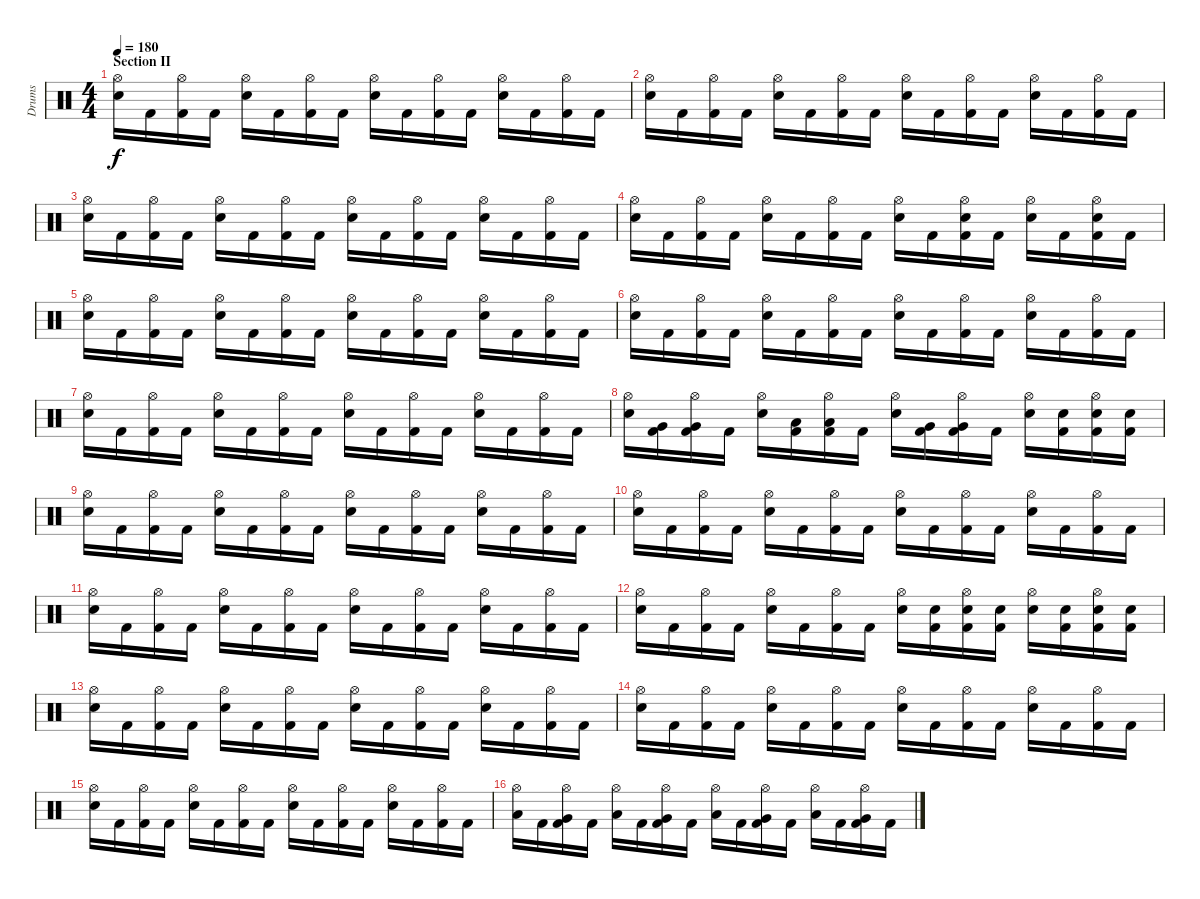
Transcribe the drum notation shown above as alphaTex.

\track ("Drums" "Drums") {instrument percussion}
\staff {score}
\articulation defaults
\ts (4 4)
\section ("" "Section II")
\tempo 180
\clef neutral
\ks c
("Hi-Hat (open)" "Snare (hit) 2").16{dy f} "Kick (hit) 2".16 ("Hi-Hat (open)" "Kick (hit) 2").16 "Kick (hit) 2".16 ("Hi-Hat (open)" "Snare (hit) 2").16 "Kick (hit) 2".16 ("Hi-Hat (open)" "Kick (hit) 2").16 "Kick (hit) 2".16 ("Hi-Hat (open)" "Snare (hit) 2").16 "Kick (hit) 2".16 ("Hi-Hat (open)" "Kick (hit) 2").16 "Kick (hit) 2".16 ("Hi-Hat (open)" "Snare (hit) 2").16 "Kick (hit) 2".16 ("Hi-Hat (open)" "Kick (hit) 2").16 "Kick (hit) 2".16 |
("Hi-Hat (open)" "Snare (hit) 2").16 "Kick (hit) 2".16 ("Hi-Hat (open)" "Kick (hit) 2").16 "Kick (hit) 2".16 ("Hi-Hat (open)" "Snare (hit) 2").16 "Kick (hit) 2".16 ("Hi-Hat (open)" "Kick (hit) 2").16 "Kick (hit) 2".16 ("Hi-Hat (open)" "Snare (hit) 2").16 "Kick (hit) 2".16 ("Hi-Hat (open)" "Kick (hit) 2").16 "Kick (hit) 2".16 ("Hi-Hat (open)" "Snare (hit) 2").16 "Kick (hit) 2".16 ("Hi-Hat (open)" "Kick (hit) 2").16 "Kick (hit) 2".16 |
("Hi-Hat (open)" "Snare (hit) 2").16 "Kick (hit) 2".16 ("Hi-Hat (open)" "Kick (hit) 2").16 "Kick (hit) 2".16 ("Hi-Hat (open)" "Snare (hit) 2").16 "Kick (hit) 2".16 ("Hi-Hat (open)" "Kick (hit) 2").16 "Kick (hit) 2".16 ("Hi-Hat (open)" "Snare (hit) 2").16 "Kick (hit) 2".16 ("Hi-Hat (open)" "Kick (hit) 2").16 "Kick (hit) 2".16 ("Hi-Hat (open)" "Snare (hit) 2").16 "Kick (hit) 2".16 ("Hi-Hat (open)" "Kick (hit) 2").16 "Kick (hit) 2".16 |
("Hi-Hat (open)" "Snare (hit) 2").16 "Kick (hit) 2".16 ("Hi-Hat (open)" "Kick (hit) 2").16 "Kick (hit) 2".16 ("Hi-Hat (open)" "Snare (hit) 2").16 "Kick (hit) 2".16 ("Hi-Hat (open)" "Kick (hit) 2").16 "Kick (hit) 2".16 ("Hi-Hat (open)" "Snare (hit) 2").16 "Kick (hit) 2".16 ("Hi-Hat (open)" "Snare (hit) 2" "Kick (hit) 2").16 "Kick (hit) 2".16 ("Hi-Hat (open)" "Snare (hit) 2").16 "Kick (hit) 2".16 ("Hi-Hat (open)" "Snare (hit) 2" "Kick (hit) 2").16 "Kick (hit) 2".16 |
("Hi-Hat (open)" "Snare (hit) 2").16 "Kick (hit) 2".16 ("Hi-Hat (open)" "Kick (hit) 2").16 "Kick (hit) 2".16 ("Hi-Hat (open)" "Snare (hit) 2").16 "Kick (hit) 2".16 ("Hi-Hat (open)" "Kick (hit) 2").16 "Kick (hit) 2".16 ("Hi-Hat (open)" "Snare (hit) 2").16 "Kick (hit) 2".16 ("Hi-Hat (open)" "Kick (hit) 2").16 "Kick (hit) 2".16 ("Hi-Hat (open)" "Snare (hit) 2").16 "Kick (hit) 2".16 ("Hi-Hat (open)" "Kick (hit) 2").16 "Kick (hit) 2".16 |
("Hi-Hat (open)" "Snare (hit) 2").16 "Kick (hit) 2".16 ("Hi-Hat (open)" "Kick (hit) 2").16 "Kick (hit) 2".16 ("Hi-Hat (open)" "Snare (hit) 2").16 "Kick (hit) 2".16 ("Hi-Hat (open)" "Kick (hit) 2").16 "Kick (hit) 2".16 ("Hi-Hat (open)" "Snare (hit) 2").16 "Kick (hit) 2".16 ("Hi-Hat (open)" "Kick (hit) 2").16 "Kick (hit) 2".16 ("Hi-Hat (open)" "Snare (hit) 2").16 "Kick (hit) 2".16 ("Hi-Hat (open)" "Kick (hit) 2").16 "Kick (hit) 2".16 |
("Hi-Hat (open)" "Snare (hit) 2").16 "Kick (hit) 2".16 ("Hi-Hat (open)" "Kick (hit) 2").16 "Kick (hit) 2".16 ("Hi-Hat (open)" "Snare (hit) 2").16 "Kick (hit) 2".16 ("Hi-Hat (open)" "Kick (hit) 2").16 "Kick (hit) 2".16 ("Hi-Hat (open)" "Snare (hit) 2").16 "Kick (hit) 2".16 ("Hi-Hat (open)" "Kick (hit) 2").16 "Kick (hit) 2".16 ("Hi-Hat (open)" "Snare (hit) 2").16 "Kick (hit) 2".16 ("Hi-Hat (open)" "Kick (hit) 2").16 "Kick (hit) 2".16 |
("Hi-Hat (open)" "Snare (hit) 2").16 ("Very Low Tom (hit)" "Kick (hit) 2").16 ("Hi-Hat (open)" "Very Low Tom (hit)" "Kick (hit) 2").16 "Kick (hit) 2".16 ("Hi-Hat (open)" "Snare (hit) 2").16 ("Low Tom (hit)" "Kick (hit) 2").16 ("Hi-Hat (open)" "Low Tom (hit)" "Kick (hit) 2").16 "Kick (hit) 2".16 ("Hi-Hat (open)" "Snare (hit) 2").16 ("Very Low Tom (hit)" "Kick (hit) 2").16 ("Hi-Hat (open)" "Very Low Tom (hit)" "Kick (hit) 2").16 "Kick (hit) 2".16 ("Hi-Hat (open)" "Snare (hit) 2").16 ("Snare (hit) 2" "Kick (hit) 2").16 ("Hi-Hat (open)" "Snare (hit) 2" "Kick (hit) 2").16 ("Snare (hit) 2" "Kick (hit) 2").16 |
("Hi-Hat (open)" "Snare (hit) 2").16 "Kick (hit) 2".16 ("Hi-Hat (open)" "Kick (hit) 2").16 "Kick (hit) 2".16 ("Hi-Hat (open)" "Snare (hit) 2").16 "Kick (hit) 2".16 ("Hi-Hat (open)" "Kick (hit) 2").16 "Kick (hit) 2".16 ("Hi-Hat (open)" "Snare (hit) 2").16 "Kick (hit) 2".16 ("Hi-Hat (open)" "Kick (hit) 2").16 "Kick (hit) 2".16 ("Hi-Hat (open)" "Snare (hit) 2").16 "Kick (hit) 2".16 ("Hi-Hat (open)" "Kick (hit) 2").16 "Kick (hit) 2".16 |
("Hi-Hat (open)" "Snare (hit) 2").16 "Kick (hit) 2".16 ("Hi-Hat (open)" "Kick (hit) 2").16 "Kick (hit) 2".16 ("Hi-Hat (open)" "Snare (hit) 2").16 "Kick (hit) 2".16 ("Hi-Hat (open)" "Kick (hit) 2").16 "Kick (hit) 2".16 ("Hi-Hat (open)" "Snare (hit) 2").16 "Kick (hit) 2".16 ("Hi-Hat (open)" "Kick (hit) 2").16 "Kick (hit) 2".16 ("Hi-Hat (open)" "Snare (hit) 2").16 "Kick (hit) 2".16 ("Hi-Hat (open)" "Kick (hit) 2").16 "Kick (hit) 2".16 |
("Hi-Hat (open)" "Snare (hit) 2").16 "Kick (hit) 2".16 ("Hi-Hat (open)" "Kick (hit) 2").16 "Kick (hit) 2".16 ("Hi-Hat (open)" "Snare (hit) 2").16 "Kick (hit) 2".16 ("Hi-Hat (open)" "Kick (hit) 2").16 "Kick (hit) 2".16 ("Hi-Hat (open)" "Snare (hit) 2").16 "Kick (hit) 2".16 ("Hi-Hat (open)" "Kick (hit) 2").16 "Kick (hit) 2".16 ("Hi-Hat (open)" "Snare (hit) 2").16 "Kick (hit) 2".16 ("Hi-Hat (open)" "Kick (hit) 2").16 "Kick (hit) 2".16 |
("Hi-Hat (open)" "Snare (hit) 2").16 "Kick (hit) 2".16 ("Hi-Hat (open)" "Kick (hit) 2").16 "Kick (hit) 2".16 ("Hi-Hat (open)" "Snare (hit) 2").16 "Kick (hit) 2".16 ("Hi-Hat (open)" "Kick (hit) 2").16 "Kick (hit) 2".16 ("Hi-Hat (open)" "Snare (hit) 2").16 ("Snare (hit) 2" "Kick (hit) 2").16 ("Hi-Hat (open)" "Snare (hit) 2" "Kick (hit) 2").16 ("Snare (hit) 2" "Kick (hit) 2").16 ("Hi-Hat (open)" "Snare (hit) 2").16 ("Snare (hit) 2" "Kick (hit) 2").16 ("Hi-Hat (open)" "Snare (hit) 2" "Kick (hit) 2").16 ("Snare (hit) 2" "Kick (hit) 2").16 |
("Hi-Hat (open)" "Snare (hit) 2").16 "Kick (hit) 2".16 ("Hi-Hat (open)" "Kick (hit) 2").16 "Kick (hit) 2".16 ("Hi-Hat (open)" "Snare (hit) 2").16 "Kick (hit) 2".16 ("Hi-Hat (open)" "Kick (hit) 2").16 "Kick (hit) 2".16 ("Hi-Hat (open)" "Snare (hit) 2").16 "Kick (hit) 2".16 ("Hi-Hat (open)" "Kick (hit) 2").16 "Kick (hit) 2".16 ("Hi-Hat (open)" "Snare (hit) 2").16 "Kick (hit) 2".16 ("Hi-Hat (open)" "Kick (hit) 2").16 "Kick (hit) 2".16 |
("Hi-Hat (open)" "Snare (hit) 2").16 "Kick (hit) 2".16 ("Hi-Hat (open)" "Kick (hit) 2").16 "Kick (hit) 2".16 ("Hi-Hat (open)" "Snare (hit) 2").16 "Kick (hit) 2".16 ("Hi-Hat (open)" "Kick (hit) 2").16 "Kick (hit) 2".16 ("Hi-Hat (open)" "Snare (hit) 2").16 "Kick (hit) 2".16 ("Hi-Hat (open)" "Kick (hit) 2").16 "Kick (hit) 2".16 ("Hi-Hat (open)" "Snare (hit) 2").16 "Kick (hit) 2".16 ("Hi-Hat (open)" "Kick (hit) 2").16 "Kick (hit) 2".16 |
("Hi-Hat (open)" "Snare (hit) 2").16 "Kick (hit) 2".16 ("Hi-Hat (open)" "Kick (hit) 2").16 "Kick (hit) 2".16 ("Hi-Hat (open)" "Snare (hit) 2").16 "Kick (hit) 2".16 ("Hi-Hat (open)" "Kick (hit) 2").16 "Kick (hit) 2".16 ("Hi-Hat (open)" "Snare (hit) 2").16 "Kick (hit) 2".16 ("Hi-Hat (open)" "Kick (hit) 2").16 "Kick (hit) 2".16 ("Hi-Hat (open)" "Snare (hit) 2").16 "Kick (hit) 2".16 ("Hi-Hat (open)" "Kick (hit) 2").16 "Kick (hit) 2".16 |
("Hi-Hat (open)" "Low Floor Tom (hit)").16 "Kick (hit) 2".16 ("Hi-Hat (open)" "Very Low Tom (hit)" "Kick (hit) 2").16 "Kick (hit) 2".16 ("Hi-Hat (open)" "Low Floor Tom (hit)").16 "Kick (hit) 2".16 ("Hi-Hat (open)" "Very Low Tom (hit)" "Kick (hit) 2").16 "Kick (hit) 2".16 ("Hi-Hat (open)" "Low Floor Tom (hit)").16 "Kick (hit) 2".16 ("Hi-Hat (open)" "Very Low Tom (hit)" "Kick (hit) 2").16 "Kick (hit) 2".16 ("Hi-Hat (open)" "Low Floor Tom (hit)").16 "Kick (hit) 2".16 ("Hi-Hat (open)" "Very Low Tom (hit)" "Kick (hit) 2").16 "Kick (hit) 2".16
